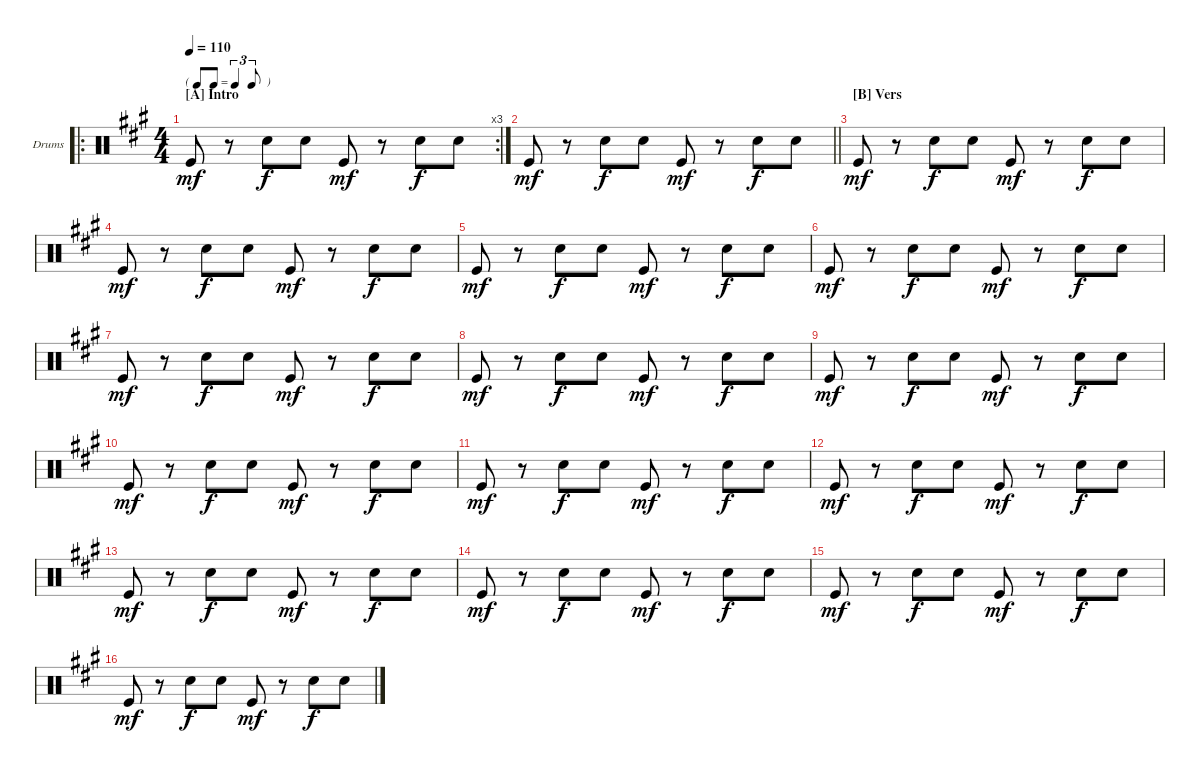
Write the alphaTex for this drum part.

\defaultSystemsLayout 4
\bracketExtendMode groupsimilarinstruments
\firstSystemTrackNameOrientation horizontal
\otherSystemsTrackNameOrientation horizontal
\track ("Drumkit" "Drums") {instrument percussion}
\staff {score}
\articulation defaults
\ro
\rc 3
\ts (4 4)
\tf triplet8th
\section ("A" "Intro")
\tempo 110
\clef neutral
\scale
0.559846
\ks a "Kick (hit)".8{dy mf}
r.8 "Snare (hit) 2".8{dy f} "Snare (hit) 2".8 "Kick (hit)".8{dy mf} r.8 "Snare (hit) 2".8{dy f} "Snare (hit) 2".8 |
\scale
0.220077
\barLineRight lightlight "Kick (hit)".8{dy mf}
r.8 "Snare (hit) 2".8{dy f} "Snare (hit) 2".8 "Kick (hit)".8{dy mf} r.8 "Snare (hit) 2".8{dy f} "Snare (hit) 2".8 |
\section ("B" "Vers")
\scale
0.220077 "Kick (hit)".8{dy mf} r.8 "Snare (hit) 2".8{dy f} "Snare (hit) 2".8 "Kick (hit)".8{dy mf} r.8 "Snare (hit) 2".8{dy f} "Snare (hit) 2".8 |
\scale
0.333333 "Kick (hit)".8{dy mf} r.8 "Snare (hit) 2".8{dy f} "Snare (hit) 2".8 "Kick (hit)".8{dy mf} r.8 "Snare (hit) 2".8{dy f} "Snare (hit) 2".8 |
\scale
0.333333 "Kick (hit)".8{dy mf} r.8 "Snare (hit) 2".8{dy f} "Snare (hit) 2".8 "Kick (hit)".8{dy mf} r.8 "Snare (hit) 2".8{dy f} "Snare (hit) 2".8 |
\scale
0.333333 "Kick (hit)".8{dy mf} r.8 "Snare (hit) 2".8{dy f} "Snare (hit) 2".8 "Kick (hit)".8{dy mf} r.8 "Snare (hit) 2".8{dy f} "Snare (hit) 2".8 |
\scale
0.333333 "Kick (hit)".8{dy mf} r.8 "Snare (hit) 2".8{dy f} "Snare (hit) 2".8 "Kick (hit)".8{dy mf} r.8 "Snare (hit) 2".8{dy f} "Snare (hit) 2".8 |
\scale
0.333333 "Kick (hit)".8{dy mf} r.8 "Snare (hit) 2".8{dy f} "Snare (hit) 2".8 "Kick (hit)".8{dy mf} r.8 "Snare (hit) 2".8{dy f} "Snare (hit) 2".8 |
\scale
0.333333 "Kick (hit)".8{dy mf} r.8 "Snare (hit) 2".8{dy f} "Snare (hit) 2".8 "Kick (hit)".8{dy mf} r.8 "Snare (hit) 2".8{dy f} "Snare (hit) 2".8 |
\scale
0.333333 "Kick (hit)".8{dy mf} r.8 "Snare (hit) 2".8{dy f} "Snare (hit) 2".8 "Kick (hit)".8{dy mf} r.8 "Snare (hit) 2".8{dy f} "Snare (hit) 2".8 |
\scale
0.333333 "Kick (hit)".8{dy mf} r.8 "Snare (hit) 2".8{dy f} "Snare (hit) 2".8 "Kick (hit)".8{dy mf} r.8 "Snare (hit) 2".8{dy f} "Snare (hit) 2".8 |
\scale
0.333333 "Kick (hit)".8{dy mf} r.8 "Snare (hit) 2".8{dy f} "Snare (hit) 2".8 "Kick (hit)".8{dy mf} r.8 "Snare (hit) 2".8{dy f} "Snare (hit) 2".8 |
\scale
0.333333 "Kick (hit)".8{dy mf} r.8 "Snare (hit) 2".8{dy f} "Snare (hit) 2".8 "Kick (hit)".8{dy mf} r.8 "Snare (hit) 2".8{dy f} "Snare (hit) 2".8 |
\scale
0.333333 "Kick (hit)".8{dy mf} r.8 "Snare (hit) 2".8{dy f} "Snare (hit) 2".8 "Kick (hit)".8{dy mf} r.8 "Snare (hit) 2".8{dy f} "Snare (hit) 2".8 |
\scale
0.333333 "Kick (hit)".8{dy mf} r.8 "Snare (hit) 2".8{dy f} "Snare (hit) 2".8 "Kick (hit)".8{dy mf} r.8 "Snare (hit) 2".8{dy f} "Snare (hit) 2".8 |
\scale
0.333333 "Kick (hit)".8{dy mf} r.8 "Snare (hit) 2".8{dy f} "Snare (hit) 2".8 "Kick (hit)".8{dy mf} r.8 "Snare (hit) 2".8{dy f} "Snare (hit) 2".8
